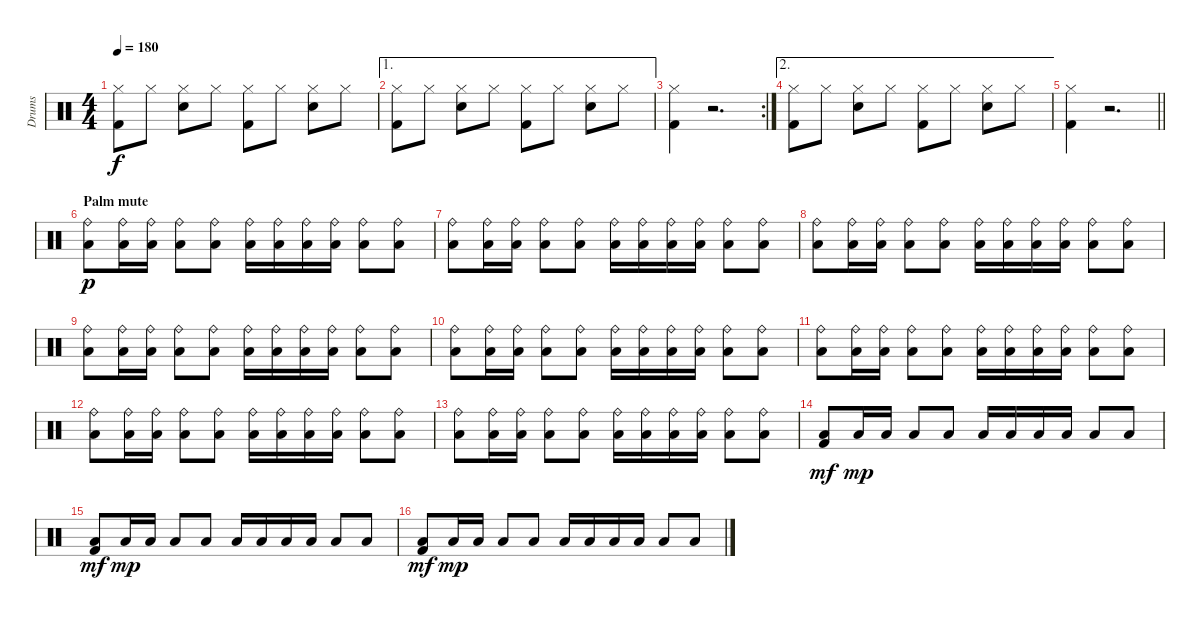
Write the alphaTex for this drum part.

\track ("Drums" "Drums") {instrument percussion}
\staff {score}
\articulation defaults
\ts (4 4)
\tempo 180
\clef neutral
\ks c
("Hi-Hat (closed)" "Kick (hit) 2").8{dy f} "Hi-Hat (closed)".8 ("Hi-Hat (closed)" "Snare (hit) 2").8 "Hi-Hat (closed)".8 ("Hi-Hat (closed)" "Kick (hit) 2").8 "Hi-Hat (closed)".8 ("Hi-Hat (closed)" "Snare (hit) 2").8 "Hi-Hat (closed)".8 |
\ae 1
("Hi-Hat (closed)" "Kick (hit) 2").8 "Hi-Hat (closed)".8 ("Hi-Hat (closed)" "Snare (hit) 2").8 "Hi-Hat (closed)".8 ("Hi-Hat (closed)" "Kick (hit) 2").8 "Hi-Hat (closed)".8 ("Hi-Hat (closed)" "Snare (hit) 2").8 "Hi-Hat (closed)".8 |
\rc 2
("Hi-Hat (closed)" "Kick (hit) 2").4 r.2{d} |
\ae 2
("Hi-Hat (closed)" "Kick (hit) 2").8 "Hi-Hat (closed)".8 ("Hi-Hat (closed)" "Snare (hit) 2").8 "Hi-Hat (closed)".8 ("Hi-Hat (closed)" "Kick (hit) 2").8 "Hi-Hat (closed)".8 ("Hi-Hat (closed)" "Snare (hit) 2").8 "Hi-Hat (closed)".8 |
\barLineRight lightlight
("Hi-Hat (closed)" "Kick (hit) 2").4 r.2{d} |
\section ("" "Palm mute")
("Ride (bell)" "Low Tom (hit)").8{dy p} ("Ride (bell)" "Low Tom (hit)").16 ("Ride (bell)" "Low Tom (hit)").16 ("Ride (bell)" "Low Tom (hit)").8 ("Ride (bell)" "Low Tom (hit)").8 ("Ride (bell)" "Low Tom (hit)").16 ("Ride (bell)" "Low Tom (hit)").16 ("Ride (bell)" "Low Tom (hit)").16 ("Ride (bell)" "Low Tom (hit)").16 ("Ride (bell)" "Low Tom (hit)").8 ("Ride (bell)" "Low Tom (hit)").8 |
("Ride (bell)" "Low Tom (hit)").8 ("Ride (bell)" "Low Tom (hit)").16 ("Ride (bell)" "Low Tom (hit)").16 ("Ride (bell)" "Low Tom (hit)").8 ("Ride (bell)" "Low Tom (hit)").8 ("Ride (bell)" "Low Tom (hit)").16 ("Ride (bell)" "Low Tom (hit)").16 ("Ride (bell)" "Low Tom (hit)").16 ("Ride (bell)" "Low Tom (hit)").16 ("Ride (bell)" "Low Tom (hit)").8 ("Ride (bell)" "Low Tom (hit)").8 |
("Ride (bell)" "Low Tom (hit)").8 ("Ride (bell)" "Low Tom (hit)").16 ("Ride (bell)" "Low Tom (hit)").16 ("Ride (bell)" "Low Tom (hit)").8 ("Ride (bell)" "Low Tom (hit)").8 ("Ride (bell)" "Low Tom (hit)").16 ("Ride (bell)" "Low Tom (hit)").16 ("Ride (bell)" "Low Tom (hit)").16 ("Ride (bell)" "Low Tom (hit)").16 ("Ride (bell)" "Low Tom (hit)").8 ("Ride (bell)" "Low Tom (hit)").8 |
("Ride (bell)" "Low Tom (hit)").8 ("Ride (bell)" "Low Tom (hit)").16 ("Ride (bell)" "Low Tom (hit)").16 ("Ride (bell)" "Low Tom (hit)").8 ("Ride (bell)" "Low Tom (hit)").8 ("Ride (bell)" "Low Tom (hit)").16 ("Ride (bell)" "Low Tom (hit)").16 ("Ride (bell)" "Low Tom (hit)").16 ("Ride (bell)" "Low Tom (hit)").16 ("Ride (bell)" "Low Tom (hit)").8 ("Ride (bell)" "Low Tom (hit)").8 |
("Ride (bell)" "Low Tom (hit)").8 ("Ride (bell)" "Low Tom (hit)").16 ("Ride (bell)" "Low Tom (hit)").16 ("Ride (bell)" "Low Tom (hit)").8 ("Ride (bell)" "Low Tom (hit)").8 ("Ride (bell)" "Low Tom (hit)").16 ("Ride (bell)" "Low Tom (hit)").16 ("Ride (bell)" "Low Tom (hit)").16 ("Ride (bell)" "Low Tom (hit)").16 ("Ride (bell)" "Low Tom (hit)").8 ("Ride (bell)" "Low Tom (hit)").8 |
("Ride (bell)" "Low Tom (hit)").8 ("Ride (bell)" "Low Tom (hit)").16 ("Ride (bell)" "Low Tom (hit)").16 ("Ride (bell)" "Low Tom (hit)").8 ("Ride (bell)" "Low Tom (hit)").8 ("Ride (bell)" "Low Tom (hit)").16 ("Ride (bell)" "Low Tom (hit)").16 ("Ride (bell)" "Low Tom (hit)").16 ("Ride (bell)" "Low Tom (hit)").16 ("Ride (bell)" "Low Tom (hit)").8 ("Ride (bell)" "Low Tom (hit)").8 |
("Ride (bell)" "Low Tom (hit)").8 ("Ride (bell)" "Low Tom (hit)").16 ("Ride (bell)" "Low Tom (hit)").16 ("Ride (bell)" "Low Tom (hit)").8 ("Ride (bell)" "Low Tom (hit)").8 ("Ride (bell)" "Low Tom (hit)").16 ("Ride (bell)" "Low Tom (hit)").16 ("Ride (bell)" "Low Tom (hit)").16 ("Ride (bell)" "Low Tom (hit)").16 ("Ride (bell)" "Low Tom (hit)").8 ("Ride (bell)" "Low Tom (hit)").8 |
("Ride (bell)" "Low Tom (hit)").8 ("Ride (bell)" "Low Tom (hit)").16 ("Ride (bell)" "Low Tom (hit)").16 ("Ride (bell)" "Low Tom (hit)").8 ("Ride (bell)" "Low Tom (hit)").8 ("Ride (bell)" "Low Tom (hit)").16 ("Ride (bell)" "Low Tom (hit)").16 ("Ride (bell)" "Low Tom (hit)").16 ("Ride (bell)" "Low Tom (hit)").16 ("Ride (bell)" "Low Tom (hit)").8 ("Ride (bell)" "Low Tom (hit)").8 |
("Low Tom (hit)" "Kick (hit) 2").8{dy mf} "Low Tom (hit)".16{dy mp} "Low Tom (hit)".16 "Low Tom (hit)".8 "Low Tom (hit)".8 "Low Tom (hit)".16 "Low Tom (hit)".16 "Low Tom (hit)".16 "Low Tom (hit)".16 "Low Tom (hit)".8 "Low Tom (hit)".8 |
("Low Tom (hit)" "Kick (hit) 2").8{dy mf} "Low Tom (hit)".16{dy mp} "Low Tom (hit)".16 "Low Tom (hit)".8 "Low Tom (hit)".8 "Low Tom (hit)".16 "Low Tom (hit)".16 "Low Tom (hit)".16 "Low Tom (hit)".16 "Low Tom (hit)".8 "Low Tom (hit)".8 |
("Low Tom (hit)" "Kick (hit) 2").8{dy mf} "Low Tom (hit)".16{dy mp} "Low Tom (hit)".16 "Low Tom (hit)".8 "Low Tom (hit)".8 "Low Tom (hit)".16 "Low Tom (hit)".16 "Low Tom (hit)".16 "Low Tom (hit)".16 "Low Tom (hit)".8 "Low Tom (hit)".8
